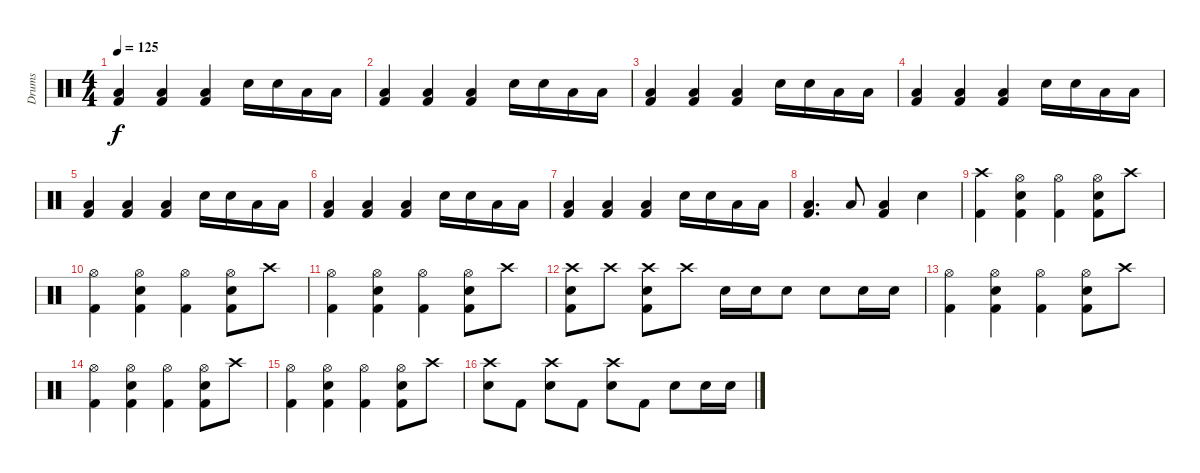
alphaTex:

\track ("Drums" "Drums") {instrument percussion}
\staff {score}
\articulation defaults
\ts (4 4)
\tempo 125
\clef neutral
\ks c
("Low Floor Tom (hit)" "Kick (hit) 2").4{dy f} ("Low Floor Tom (hit)" "Kick (hit) 2").4 ("Low Floor Tom (hit)" "Kick (hit) 2").4 "Snare (hit) 2".16 "Snare (hit) 2".16 "Low Tom (hit)".16 "Low Tom (hit)".16 |
("Low Floor Tom (hit)" "Kick (hit) 2").4 ("Low Floor Tom (hit)" "Kick (hit) 2").4 ("Low Floor Tom (hit)" "Kick (hit) 2").4 "Snare (hit) 2".16 "Snare (hit) 2".16 "Low Tom (hit)".16 "Low Tom (hit)".16 |
("Low Floor Tom (hit)" "Kick (hit) 2").4 ("Low Floor Tom (hit)" "Kick (hit) 2").4 ("Low Floor Tom (hit)" "Kick (hit) 2").4 "Snare (hit) 2".16 "Snare (hit) 2".16 "Low Tom (hit)".16 "Low Tom (hit)".16 |
("Low Floor Tom (hit)" "Kick (hit) 2").4 ("Low Floor Tom (hit)" "Kick (hit) 2").4 ("Low Floor Tom (hit)" "Kick (hit) 2").4 "Snare (hit) 2".16 "Snare (hit) 2".16 "Low Tom (hit)".16 "Low Tom (hit)".16 |
("Low Floor Tom (hit)" "Kick (hit) 2").4 ("Low Floor Tom (hit)" "Kick (hit) 2").4 ("Low Floor Tom (hit)" "Kick (hit) 2").4 "Snare (hit) 2".16 "Snare (hit) 2".16 "Low Tom (hit)".16 "Low Tom (hit)".16 |
("Low Floor Tom (hit)" "Kick (hit) 2").4 ("Low Floor Tom (hit)" "Kick (hit) 2").4 ("Low Floor Tom (hit)" "Kick (hit) 2").4 "Snare (hit) 2".16 "Snare (hit) 2".16 "Low Tom (hit)".16 "Low Tom (hit)".16 |
("Low Floor Tom (hit)" "Kick (hit) 2").4 ("Low Floor Tom (hit)" "Kick (hit) 2").4 ("Low Floor Tom (hit)" "Kick (hit) 2").4 "Snare (hit) 2".16 "Snare (hit) 2".16 "Low Tom (hit)".16 "Low Tom (hit)".16 |
("Low Floor Tom (hit)" "Kick (hit) 2").4{d} "Low Tom (hit)".8 ("Low Floor Tom (hit)" "Kick (hit) 2").4 "Snare (hit) 2".4 |
("Crash high (hit)" "Kick (hit) 2").4 ("Hi-Hat (open)" "Snare (hit) 2" "Kick (hit) 2").4 ("Hi-Hat (open)" "Kick (hit) 2").4 ("Hi-Hat (open)" "Snare (hit) 2" "Kick (hit) 2").8 "Crash high (hit)".8 |
("Hi-Hat (open)" "Kick (hit) 2").4 ("Hi-Hat (open)" "Snare (hit) 2" "Kick (hit) 2").4 ("Hi-Hat (open)" "Kick (hit) 2").4 ("Hi-Hat (open)" "Snare (hit) 2" "Kick (hit) 2").8 "Crash high (hit)".8 |
("Hi-Hat (open)" "Kick (hit) 2").4 ("Hi-Hat (open)" "Snare (hit) 2" "Kick (hit) 2").4 ("Hi-Hat (open)" "Kick (hit) 2").4 ("Hi-Hat (open)" "Snare (hit) 2" "Kick (hit) 2").8 "Crash high (hit)".8 |
("Crash high (hit)" "Snare (hit) 2" "Kick (hit) 2").8 "Crash high (hit)".8 ("Crash high (hit)" "Snare (hit) 2" "Kick (hit) 2").8 "Crash high (hit)".8 "Snare (hit) 2".16 "Snare (hit) 2".16 "Snare (hit) 2".8 "Snare (hit) 2".8 "Snare (hit) 2".16 "Snare (hit) 2".16 |
("Hi-Hat (open)" "Kick (hit) 2").4 ("Hi-Hat (open)" "Snare (hit) 2" "Kick (hit) 2").4 ("Hi-Hat (open)" "Kick (hit) 2").4 ("Hi-Hat (open)" "Snare (hit) 2" "Kick (hit) 2").8 "Crash high (hit)".8 |
("Hi-Hat (open)" "Kick (hit) 2").4 ("Hi-Hat (open)" "Snare (hit) 2" "Kick (hit) 2").4 ("Hi-Hat (open)" "Kick (hit) 2").4 ("Hi-Hat (open)" "Snare (hit) 2" "Kick (hit) 2").8 "Crash high (hit)".8 |
("Hi-Hat (open)" "Kick (hit) 2").4 ("Hi-Hat (open)" "Snare (hit) 2" "Kick (hit) 2").4 ("Hi-Hat (open)" "Kick (hit) 2").4 ("Hi-Hat (open)" "Snare (hit) 2" "Kick (hit) 2").8 "Crash high (hit)".8 |
("Crash high (hit)" "Snare (hit) 2").8 "Kick (hit) 2".8 ("Crash high (hit)" "Snare (hit) 2").8 "Kick (hit) 2".8 ("Crash high (hit)" "Snare (hit) 2").8 "Kick (hit) 2".8 "Snare (hit) 2".8 "Snare (hit) 2".16 "Snare (hit) 2".16
